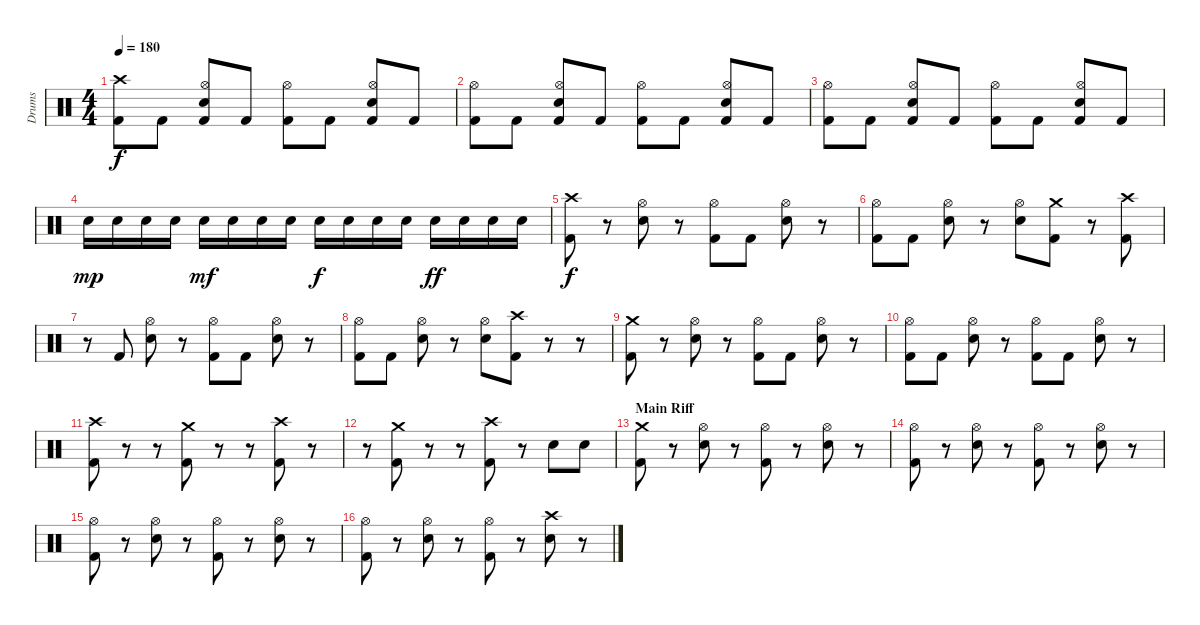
\track ("Drums" "Drums") {instrument percussion}
\staff {score}
\articulation defaults
\ts (4 4)
\tempo 180
\clef neutral
\ks c
("Crash high (hit)" "Kick (hit) 2").8{dy f} "Kick (hit) 2".8 ("Hi-Hat (open)" "Snare (hit) 2" "Kick (hit) 2").8 "Kick (hit) 2".8 ("Hi-Hat (open)" "Kick (hit) 2").8 "Kick (hit) 2".8 ("Hi-Hat (open)" "Snare (hit) 2" "Kick (hit) 2").8 "Kick (hit) 2".8 |
("Hi-Hat (open)" "Kick (hit) 2").8 "Kick (hit) 2".8 ("Hi-Hat (open)" "Snare (hit) 2" "Kick (hit) 2").8 "Kick (hit) 2".8 ("Hi-Hat (open)" "Kick (hit) 2").8 "Kick (hit) 2".8 ("Hi-Hat (open)" "Snare (hit) 2" "Kick (hit) 2").8 "Kick (hit) 2".8 |
("Hi-Hat (open)" "Kick (hit) 2").8 "Kick (hit) 2".8 ("Hi-Hat (open)" "Snare (hit) 2" "Kick (hit) 2").8 "Kick (hit) 2".8 ("Hi-Hat (open)" "Kick (hit) 2").8 "Kick (hit) 2".8 ("Hi-Hat (open)" "Snare (hit) 2" "Kick (hit) 2").8 "Kick (hit) 2".8 |
"Snare (hit) 2".16{dy mp} "Snare (hit) 2".16 "Snare (hit) 2".16 "Snare (hit) 2".16 "Snare (hit) 2".16{dy mf} "Snare (hit) 2".16 "Snare (hit) 2".16 "Snare (hit) 2".16 "Snare (hit) 2".16{dy f} "Snare (hit) 2".16 "Snare (hit) 2".16 "Snare (hit) 2".16 "Snare (hit) 2".16{dy ff} "Snare (hit) 2".16 "Snare (hit) 2".16 "Snare (hit) 2".16 |
("Crash high (hit)" "Kick (hit) 2").8{dy f} r.8 ("Hi-Hat (open)" "Snare (hit) 2").8 r.8 ("Hi-Hat (open)" "Kick (hit) 2").8 "Kick (hit) 2".8 ("Hi-Hat (open)" "Snare (hit) 2").8 r.8 |
("Hi-Hat (open)" "Kick (hit) 2").8 "Kick (hit) 2".8 ("Hi-Hat (open)" "Snare (hit) 2").8 r.8 ("Hi-Hat (open)" "Snare (hit) 2").8 ("Crash medium (hit)" "Kick (hit) 2").8 r.8 ("Crash high (hit)" "Kick (hit) 2").8 |
r.8 "Kick (hit) 2".8 ("Hi-Hat (open)" "Snare (hit) 2").8 r.8 ("Hi-Hat (open)" "Kick (hit) 2").8 "Kick (hit) 2".8 ("Hi-Hat (open)" "Snare (hit) 2").8 r.8 |
("Hi-Hat (open)" "Kick (hit) 2").8 "Kick (hit) 2".8 ("Hi-Hat (open)" "Snare (hit) 2").8 r.8 ("Hi-Hat (open)" "Snare (hit) 2").8 ("Crash high (hit)" "Kick (hit) 2").8 r.8 r.8 |
("Crash medium (hit)" "Kick (hit) 2").8 r.8 ("Hi-Hat (open)" "Snare (hit) 2").8 r.8 ("Hi-Hat (open)" "Kick (hit) 2").8 "Kick (hit) 2".8 ("Hi-Hat (open)" "Snare (hit) 2").8 r.8 |
("Hi-Hat (open)" "Kick (hit) 2").8 "Kick (hit) 2".8 ("Hi-Hat (open)" "Snare (hit) 2").8 r.8 ("Hi-Hat (open)" "Kick (hit) 2").8 "Kick (hit) 2".8 ("Hi-Hat (open)" "Snare (hit) 2").8 r.8 |
("Crash high (hit)" "Kick (hit) 2").8 r.8 r.8 ("Crash medium (hit)" "Kick (hit) 2").8 r.8 r.8 ("Crash high (hit)" "Kick (hit) 2").8 r.8 |
r.8 ("Crash medium (hit)" "Kick (hit) 2").8 r.8 r.8 ("Crash high (hit)" "Kick (hit) 2").8 r.8 "Snare (hit) 2".8 "Snare (hit) 2".8 |
\section ("" "Main Riff")
("Crash medium (hit)" "Kick (hit) 2").8 r.8 ("Hi-Hat (open)" "Snare (hit) 2").8 r.8 ("Hi-Hat (open)" "Kick (hit) 2").8 r.8 ("Hi-Hat (open)" "Snare (hit) 2").8 r.8 |
("Hi-Hat (open)" "Kick (hit) 2").8 r.8 ("Hi-Hat (open)" "Snare (hit) 2").8 r.8 ("Hi-Hat (open)" "Kick (hit) 2").8 r.8 ("Hi-Hat (open)" "Snare (hit) 2").8 r.8 |
("Hi-Hat (open)" "Kick (hit) 2").8 r.8 ("Hi-Hat (open)" "Snare (hit) 2").8 r.8 ("Hi-Hat (open)" "Kick (hit) 2").8 r.8 ("Hi-Hat (open)" "Snare (hit) 2").8 r.8 |
("Hi-Hat (open)" "Kick (hit) 2").8 r.8 ("Hi-Hat (open)" "Snare (hit) 2").8 r.8 ("Hi-Hat (open)" "Kick (hit) 2").8 r.8 ("Crash high (hit)" "Snare (hit) 2").8 r.8
